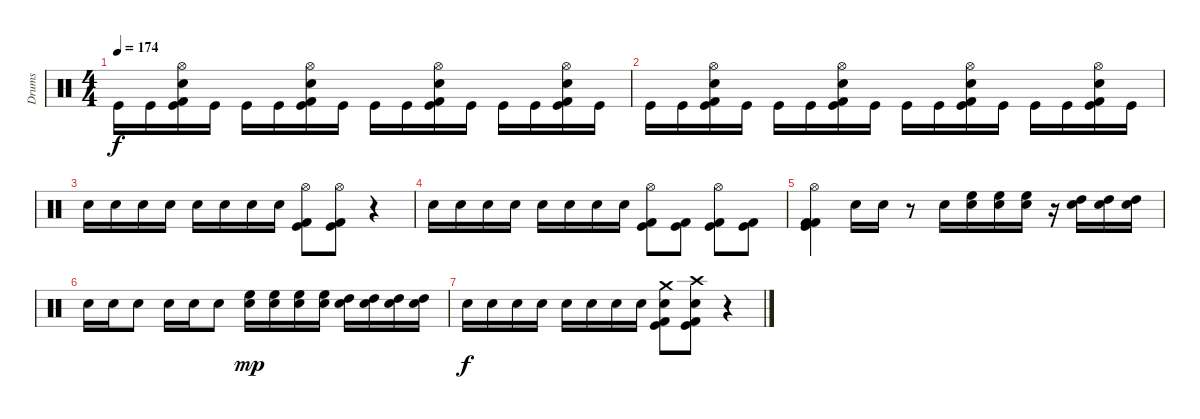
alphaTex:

\track ("Drums" "Drums") {instrument percussion}
\staff {score}
\articulation defaults
\ts (4 4)
\tempo 174
\clef neutral
\ks c "Kick (hit)".16{dy f} "Kick (hit)".16
("Kick (hit)" "Kick (hit) 2" "Electric Snare (hit)" "Hi-Hat (open)").16 "Kick (hit)".16 "Kick (hit)".16 "Kick (hit)".16 ("Kick (hit)" "Kick (hit) 2" "Electric Snare (hit)" "Hi-Hat (open)").16 "Kick (hit)".16 "Kick (hit)".16 "Kick (hit)".16 ("Kick (hit)" "Kick (hit) 2" "Electric Snare (hit)" "Hi-Hat (open)").16 "Kick (hit)".16 "Kick (hit)".16 "Kick (hit)".16 ("Kick (hit)" "Kick (hit) 2" "Electric Snare (hit)" "Hi-Hat (open)").16 "Kick (hit)".16 |
"Kick (hit)".16 "Kick (hit)".16 ("Kick (hit)" "Kick (hit) 2" "Electric Snare (hit)" "Hi-Hat (open)").16 "Kick (hit)".16 "Kick (hit)".16 "Kick (hit)".16 ("Kick (hit)" "Kick (hit) 2" "Electric Snare (hit)" "Hi-Hat (open)").16 "Kick (hit)".16 "Kick (hit)".16 "Kick (hit)".16 ("Kick (hit)" "Kick (hit) 2" "Electric Snare (hit)" "Hi-Hat (open)").16 "Kick (hit)".16 "Kick (hit)".16 "Kick (hit)".16 ("Kick (hit)" "Kick (hit) 2" "Electric Snare (hit)" "Hi-Hat (open)").16 "Kick (hit)".16 |
"Electric Snare (hit)".16 "Electric Snare (hit)".16 "Electric Snare (hit)".16 "Electric Snare (hit)".16 "Electric Snare (hit)".16 "Electric Snare (hit)".16 "Electric Snare (hit)".16 "Electric Snare (hit)".16 ("Kick (hit)" "Kick (hit) 2" "Hi-Hat (open)").8 ("Kick (hit)" "Kick (hit) 2" "Hi-Hat (open)").8 r.4 |
"Electric Snare (hit)".16 "Electric Snare (hit)".16 "Electric Snare (hit)".16 "Electric Snare (hit)".16 "Electric Snare (hit)".16 "Electric Snare (hit)".16 "Electric Snare (hit)".16 "Electric Snare (hit)".16 ("Kick (hit)" "Kick (hit) 2" "Hi-Hat (open)").8 ("Kick (hit)" "Kick (hit) 2").8 ("Kick (hit)" "Kick (hit) 2" "Hi-Hat (open)").8 ("Kick (hit)" "Kick (hit) 2").8 |
("Kick (hit)" "Kick (hit) 2" "Kick (hit) 2" "Hi-Hat (open)").4 "Electric Snare (hit)".16 "Electric Snare (hit)".16 r.8 "Electric Snare (hit)".16 ("Electric Snare (hit)" "High Floor Tom (hit)").16 ("Electric Snare (hit)" "High Floor Tom (hit)").16 ("Electric Snare (hit)" "High Floor Tom (hit)").16 r.16 ("Electric Snare (hit)" "High Tom (hit)").16 ("Electric Snare (hit)" "High Tom (hit)").16 ("Electric Snare (hit)" "High Tom (hit)").16 |
"Electric Snare (hit)".16 "Electric Snare (hit)".16 "Electric Snare (hit)".8 "Electric Snare (hit)".16 "Electric Snare (hit)".16 "Electric Snare (hit)".8 ("High Floor Tom (hit)" "Electric Snare (hit)").16{dy mp} ("High Floor Tom (hit)" "Electric Snare (hit)").16 ("High Floor Tom (hit)" "Electric Snare (hit)").16 ("High Floor Tom (hit)" "Electric Snare (hit)").16 ("High Tom (hit)" "Electric Snare (hit)").16 ("High Tom (hit)" "Electric Snare (hit)").16 ("High Tom (hit)" "Electric Snare (hit)").16 ("High Tom (hit)" "Electric Snare (hit)").16 |
"Electric Snare (hit)".16{dy f} "Electric Snare (hit)".16 "Electric Snare (hit)".16 "Electric Snare (hit)".16 "Electric Snare (hit)".16 "Electric Snare (hit)".16 "Electric Snare (hit)".16 "Electric Snare (hit)".16 ("Kick (hit)" "Kick (hit) 2" "Electric Snare (hit)" "Crash medium (hit)").8 ("Kick (hit)" "Kick (hit) 2" "Electric Snare (hit)" "Crash high (hit)").8 r.4
